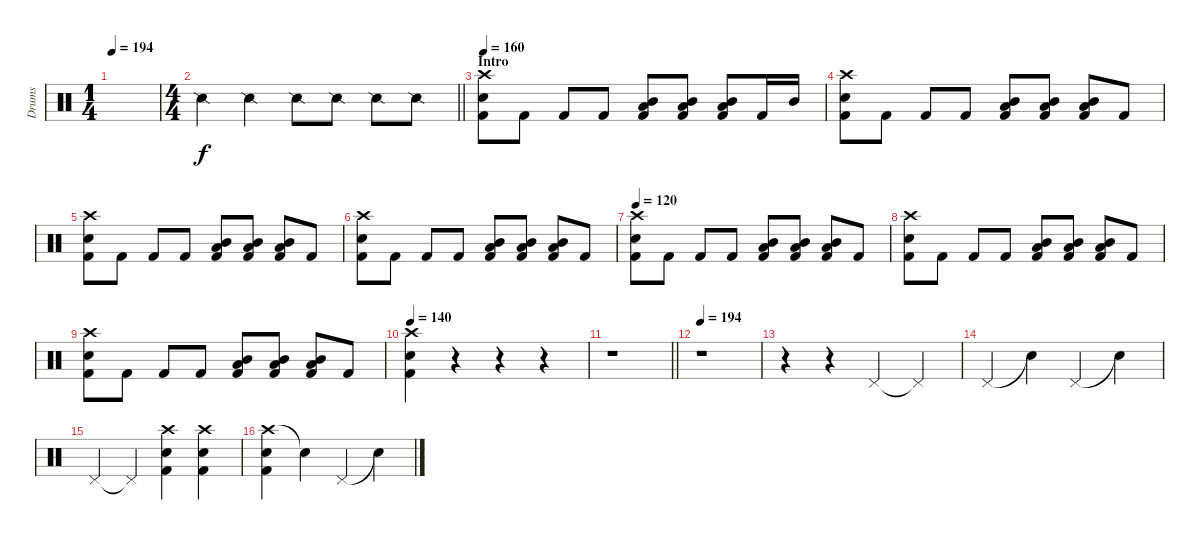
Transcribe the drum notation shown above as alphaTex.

\track ("Drums" "Drums") {instrument percussion}
\staff {score}
\articulation defaults
\ts (1 4)
\tempo 194
\clef neutral
\ks c
|
\ts (4 4)
\barLineRight lightlight "Snare (side stick) 2".4 "Snare (side stick) 2".4 "Snare (side stick) 2".8 "Snare (side stick) 2".8 "Snare (side stick) 2".8 "Snare (side stick) 2".8
|
\section ("" "Intro")
\tempo 160
("Crash high (hit)" "Snare (hit) 2" "Kick (hit) 2").8 "Kick (hit) 2".8 "Kick (hit) 2".8 "Kick (hit) 2".8 ("Mid Tom (hit)" "Low Tom (hit)" "Kick (hit) 2").8 ("Mid Tom (hit)" "Low Tom (hit)" "Kick (hit) 2").8 ("Mid Tom (hit)" "Low Tom (hit)" "Kick (hit) 2").8 "Kick (hit) 2".16 "Mid Tom (hit)".16 |
("Crash high (hit)" "Snare (hit) 2" "Kick (hit) 2").8 "Kick (hit) 2".8 "Kick (hit) 2".8 "Kick (hit) 2".8 ("Mid Tom (hit)" "Low Tom (hit)" "Kick (hit) 2").8 ("Mid Tom (hit)" "Low Tom (hit)" "Kick (hit) 2").8 ("Mid Tom (hit)" "Low Tom (hit)" "Kick (hit) 2").8 "Kick (hit) 2".8 |
("Crash high (hit)" "Snare (hit) 2" "Kick (hit) 2").8 "Kick (hit) 2".8 "Kick (hit) 2".8 "Kick (hit) 2".8 ("Mid Tom (hit)" "Low Tom (hit)" "Kick (hit) 2").8 ("Mid Tom (hit)" "Low Tom (hit)" "Kick (hit) 2").8 ("Mid Tom (hit)" "Low Tom (hit)" "Kick (hit) 2").8 "Kick (hit) 2".8 |
("Crash high (hit)" "Snare (hit) 2" "Kick (hit) 2").8 "Kick (hit) 2".8 "Kick (hit) 2".8 "Kick (hit) 2".8 ("Mid Tom (hit)" "Low Tom (hit)" "Kick (hit) 2").8 ("Mid Tom (hit)" "Low Tom (hit)" "Kick (hit) 2").8 ("Mid Tom (hit)" "Low Tom (hit)" "Kick (hit) 2").8 "Kick (hit) 2".8 |
\tempo 120
("Crash high (hit)" "Snare (hit) 2" "Kick (hit) 2").8 "Kick (hit) 2".8 "Kick (hit) 2".8 "Kick (hit) 2".8 ("Mid Tom (hit)" "Low Tom (hit)" "Kick (hit) 2").8 ("Mid Tom (hit)" "Low Tom (hit)" "Kick (hit) 2").8 ("Mid Tom (hit)" "Low Tom (hit)" "Kick (hit) 2").8 "Kick (hit) 2".8 |
("Crash high (hit)" "Snare (hit) 2" "Kick (hit) 2").8 "Kick (hit) 2".8 "Kick (hit) 2".8 "Kick (hit) 2".8 ("Mid Tom (hit)" "Low Tom (hit)" "Kick (hit) 2").8 ("Mid Tom (hit)" "Low Tom (hit)" "Kick (hit) 2").8 ("Mid Tom (hit)" "Low Tom (hit)" "Kick (hit) 2").8 "Kick (hit) 2".8 |
("Crash high (hit)" "Snare (hit) 2" "Kick (hit) 2").8 "Kick (hit) 2".8 "Kick (hit) 2".8 "Kick (hit) 2".8 ("Mid Tom (hit)" "Low Tom (hit)" "Kick (hit) 2").8 ("Mid Tom (hit)" "Low Tom (hit)" "Kick (hit) 2").8 ("Mid Tom (hit)" "Low Tom (hit)" "Kick (hit) 2").8 "Kick (hit) 2".8 |
\tempo 140
("Crash high (hit)" "Snare (hit) 2" "Kick (hit) 2").4 r.4 r.4 r.4 |
\barLineRight lightlight
r.1 |
\tempo 194
r.1 |
r.4 r.4 "Pedal Hi-Hat (hit)".4 "Pedal Hi-Hat (hit)"{t}.4 |
"Pedal Hi-Hat (hit)".4 "Snare (hit)"{t}.4 "Pedal Hi-Hat (hit)".4 "Snare (hit)"{t}.4 |
"Pedal Hi-Hat (hit)".4 "Pedal Hi-Hat (hit)"{t}.4 ("Crash high (hit)" "Snare (hit) 2" "Kick (hit) 2").4 ("Crash high (hit)" "Snare (hit) 2" "Kick (hit) 2").4 |
("Crash high (hit)" "Snare (hit) 2" "Kick (hit) 2").4 "Snare (hit)"{t}.4 "Pedal Hi-Hat (hit)".4 "Snare (hit)"{t}.4
